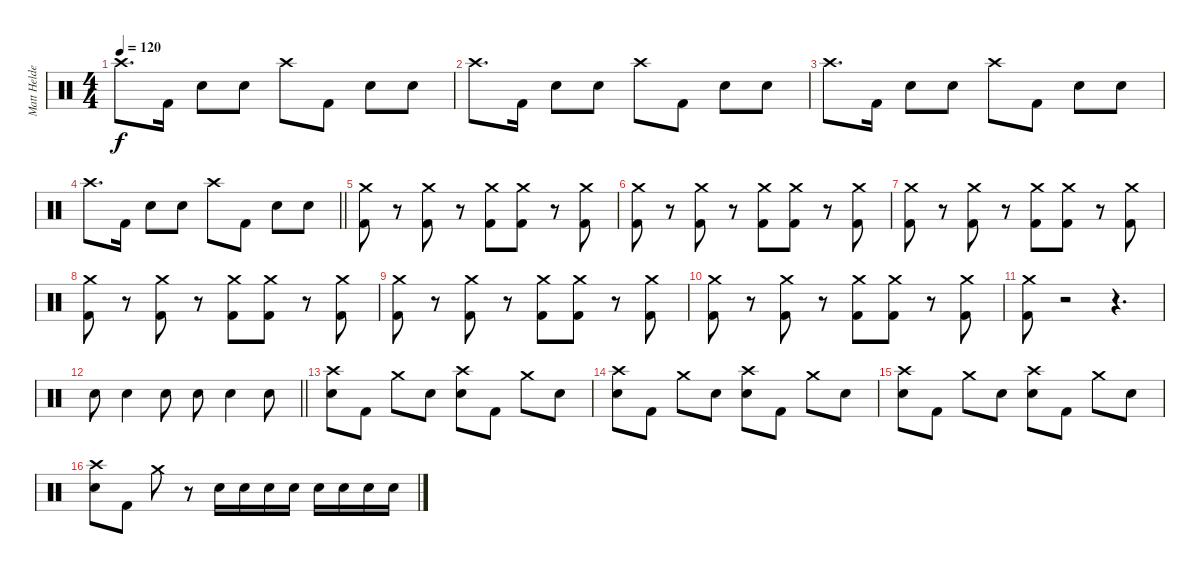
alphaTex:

\track ("Matt Helders" "Matt Helde") {instrument percussion}
\staff {score}
\articulation defaults
\ts (4 4)
\tempo 120
\clef neutral
\ks c "Crash high (hit)".8{d dy f} "Kick (hit) 2".16 "Snare (hit) 2".8 "Snare (hit) 2".8 "Crash high (hit)".8 "Kick (hit) 2".8 "Snare (hit) 2".8 "Snare (hit) 2".8
|
"Crash high (hit)".8{d} "Kick (hit) 2".16 "Snare (hit) 2".8 "Snare (hit) 2".8 "Crash high (hit)".8 "Kick (hit) 2".8 "Snare (hit) 2".8 "Snare (hit) 2".8 |
"Crash high (hit)".8{d} "Kick (hit) 2".16 "Snare (hit) 2".8 "Snare (hit) 2".8 "Crash high (hit)".8 "Kick (hit) 2".8 "Snare (hit) 2".8 "Snare (hit) 2".8 |
\barLineRight lightlight "Crash high (hit)".8{d} "Kick (hit) 2".16 "Snare (hit) 2".8 "Snare (hit) 2".8 "Crash high (hit)".8 "Kick (hit) 2".8 "Snare (hit) 2".8 "Snare (hit) 2".8
|
\section ("" "")
("Crash medium (hit)" "Kick (hit) 2").8 r.8 ("Crash medium (hit)" "Kick (hit) 2").8 r.8 ("Crash medium (hit)" "Kick (hit) 2").8 ("Crash medium (hit)" "Kick (hit) 2").8 r.8 ("Crash medium (hit)" "Kick (hit) 2").8 |
("Crash medium (hit)" "Kick (hit) 2").8 r.8 ("Crash medium (hit)" "Kick (hit) 2").8 r.8 ("Crash medium (hit)" "Kick (hit) 2").8 ("Crash medium (hit)" "Kick (hit) 2").8 r.8 ("Crash medium (hit)" "Kick (hit) 2").8 |
("Crash medium (hit)" "Kick (hit) 2").8 r.8 ("Crash medium (hit)" "Kick (hit) 2").8 r.8 ("Crash medium (hit)" "Kick (hit) 2").8 ("Crash medium (hit)" "Kick (hit) 2").8 r.8 ("Crash medium (hit)" "Kick (hit) 2").8 |
("Crash medium (hit)" "Kick (hit) 2").8 r.8 ("Crash medium (hit)" "Kick (hit) 2").8 r.8 ("Crash medium (hit)" "Kick (hit) 2").8 ("Crash medium (hit)" "Kick (hit) 2").8 r.8 ("Crash medium (hit)" "Kick (hit) 2").8 |
("Crash medium (hit)" "Kick (hit) 2").8 r.8 ("Crash medium (hit)" "Kick (hit) 2").8 r.8 ("Crash medium (hit)" "Kick (hit) 2").8 ("Crash medium (hit)" "Kick (hit) 2").8 r.8 ("Crash medium (hit)" "Kick (hit) 2").8 |
("Crash medium (hit)" "Kick (hit) 2").8 r.8 ("Crash medium (hit)" "Kick (hit) 2").8 r.8 ("Crash medium (hit)" "Kick (hit) 2").8 ("Crash medium (hit)" "Kick (hit) 2").8 r.8 ("Crash medium (hit)" "Kick (hit) 2").8 |
("Crash medium (hit)" "Kick (hit) 2").8 r.2 r.4{d} |
\barLineRight lightlight "Snare (hit) 2".8 "Snare (hit) 2".4 "Snare (hit) 2".8 "Snare (hit) 2".8 "Snare (hit) 2".4 "Snare (hit) 2".8
|
\section ("" "")
("Snare (hit) 2" "Crash high (hit)").8 "Kick (hit) 2".8 "Crash medium (hit)".8 "Snare (hit) 2".8 ("Snare (hit) 2" "Crash high (hit)").8 "Kick (hit) 2".8 "Crash medium (hit)".8 "Snare (hit) 2".8 |
("Snare (hit) 2" "Crash high (hit)").8 "Kick (hit) 2".8 "Crash medium (hit)".8 "Snare (hit) 2".8 ("Snare (hit) 2" "Crash high (hit)").8 "Kick (hit) 2".8 "Crash medium (hit)".8 "Snare (hit) 2".8 |
("Snare (hit) 2" "Crash high (hit)").8 "Kick (hit) 2".8 "Crash medium (hit)".8 "Snare (hit) 2".8 ("Snare (hit) 2" "Crash high (hit)").8 "Kick (hit) 2".8 "Crash medium (hit)".8 "Snare (hit) 2".8 |
("Snare (hit) 2" "Crash high (hit)").8 "Kick (hit) 2".8 "Crash medium (hit)".8 r.8 "Snare (hit) 2".16 "Snare (hit) 2".16 "Snare (hit) 2".16 "Snare (hit) 2".16 "Snare (hit) 2".16 "Snare (hit) 2".16 "Snare (hit) 2".16 "Snare (hit) 2".16
